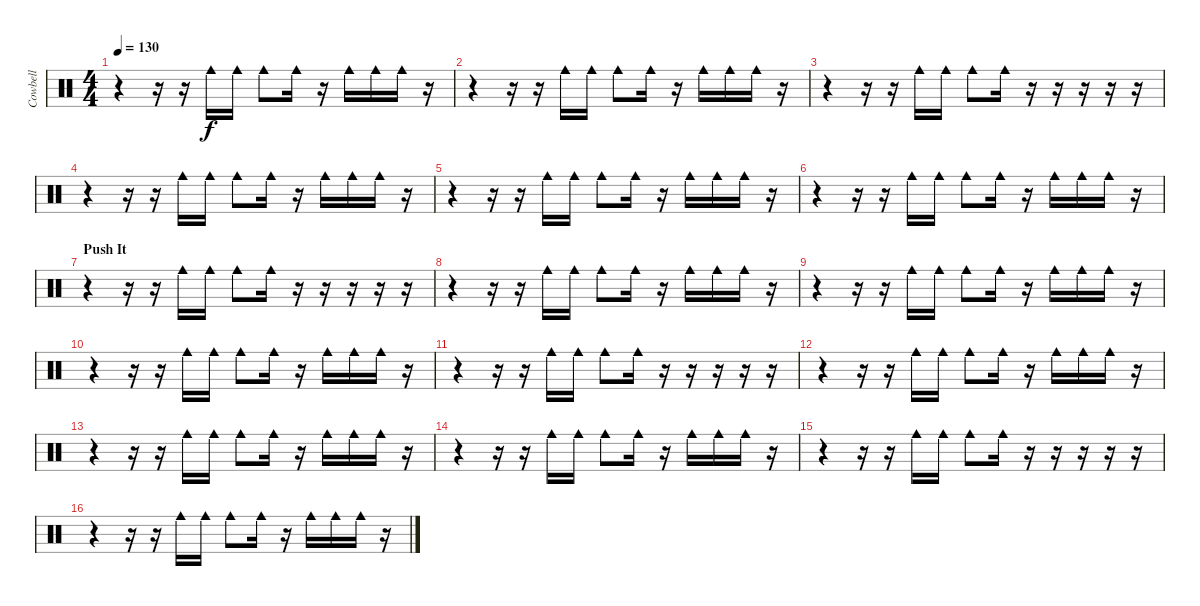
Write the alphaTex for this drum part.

\track ("Cowbell" "Cowbell") {instrument percussion}
\staff {score}
\articulation defaults
\ts (4 4)
\tempo 130
\clef neutral
\ks c
r.4{dy f} r.16 r.16 "Cowbell medium (hit)".16 "Cowbell medium (hit)".16 "Cowbell medium (hit)".8 "Cowbell medium (hit)".16 r.16 "Cowbell medium (hit)".16 "Cowbell medium (hit)".16 "Cowbell medium (hit)".16 r.16 |
r.4 r.16 r.16 "Cowbell medium (hit)".16 "Cowbell medium (hit)".16 "Cowbell medium (hit)".8 "Cowbell medium (hit)".16 r.16 "Cowbell medium (hit)".16 "Cowbell medium (hit)".16 "Cowbell medium (hit)".16 r.16 |
r.4 r.16 r.16 "Cowbell medium (hit)".16 "Cowbell medium (hit)".16 "Cowbell medium (hit)".8 "Cowbell medium (hit)".16 r.16 r.16 r.16 r.16 r.16 |
r.4 r.16 r.16 "Cowbell medium (hit)".16 "Cowbell medium (hit)".16 "Cowbell medium (hit)".8 "Cowbell medium (hit)".16 r.16 "Cowbell medium (hit)".16 "Cowbell medium (hit)".16 "Cowbell medium (hit)".16 r.16 |
r.4 r.16 r.16 "Cowbell medium (hit)".16 "Cowbell medium (hit)".16 "Cowbell medium (hit)".8 "Cowbell medium (hit)".16 r.16 "Cowbell medium (hit)".16 "Cowbell medium (hit)".16 "Cowbell medium (hit)".16 r.16 |
r.4 r.16 r.16 "Cowbell medium (hit)".16 "Cowbell medium (hit)".16 "Cowbell medium (hit)".8 "Cowbell medium (hit)".16 r.16 "Cowbell medium (hit)".16 "Cowbell medium (hit)".16 "Cowbell medium (hit)".16 r.16 |
\section ("" "Push It")
r.4 r.16 r.16 "Cowbell medium (hit)".16 "Cowbell medium (hit)".16 "Cowbell medium (hit)".8 "Cowbell medium (hit)".16 r.16 r.16 r.16 r.16 r.16 |
r.4 r.16 r.16 "Cowbell medium (hit)".16 "Cowbell medium (hit)".16 "Cowbell medium (hit)".8 "Cowbell medium (hit)".16 r.16 "Cowbell medium (hit)".16 "Cowbell medium (hit)".16 "Cowbell medium (hit)".16 r.16 |
r.4 r.16 r.16 "Cowbell medium (hit)".16 "Cowbell medium (hit)".16 "Cowbell medium (hit)".8 "Cowbell medium (hit)".16 r.16 "Cowbell medium (hit)".16 "Cowbell medium (hit)".16 "Cowbell medium (hit)".16 r.16 |
r.4 r.16 r.16 "Cowbell medium (hit)".16 "Cowbell medium (hit)".16 "Cowbell medium (hit)".8 "Cowbell medium (hit)".16 r.16 "Cowbell medium (hit)".16 "Cowbell medium (hit)".16 "Cowbell medium (hit)".16 r.16 |
r.4 r.16 r.16 "Cowbell medium (hit)".16 "Cowbell medium (hit)".16 "Cowbell medium (hit)".8 "Cowbell medium (hit)".16 r.16 r.16 r.16 r.16 r.16 |
r.4 r.16 r.16 "Cowbell medium (hit)".16 "Cowbell medium (hit)".16 "Cowbell medium (hit)".8 "Cowbell medium (hit)".16 r.16 "Cowbell medium (hit)".16 "Cowbell medium (hit)".16 "Cowbell medium (hit)".16 r.16 |
r.4 r.16 r.16 "Cowbell medium (hit)".16 "Cowbell medium (hit)".16 "Cowbell medium (hit)".8 "Cowbell medium (hit)".16 r.16 "Cowbell medium (hit)".16 "Cowbell medium (hit)".16 "Cowbell medium (hit)".16 r.16 |
r.4 r.16 r.16 "Cowbell medium (hit)".16 "Cowbell medium (hit)".16 "Cowbell medium (hit)".8 "Cowbell medium (hit)".16 r.16 "Cowbell medium (hit)".16 "Cowbell medium (hit)".16 "Cowbell medium (hit)".16 r.16 |
r.4 r.16 r.16 "Cowbell medium (hit)".16 "Cowbell medium (hit)".16 "Cowbell medium (hit)".8 "Cowbell medium (hit)".16 r.16 r.16 r.16 r.16 r.16 |
r.4 r.16 r.16 "Cowbell medium (hit)".16 "Cowbell medium (hit)".16 "Cowbell medium (hit)".8 "Cowbell medium (hit)".16 r.16 "Cowbell medium (hit)".16 "Cowbell medium (hit)".16 "Cowbell medium (hit)".16 r.16
